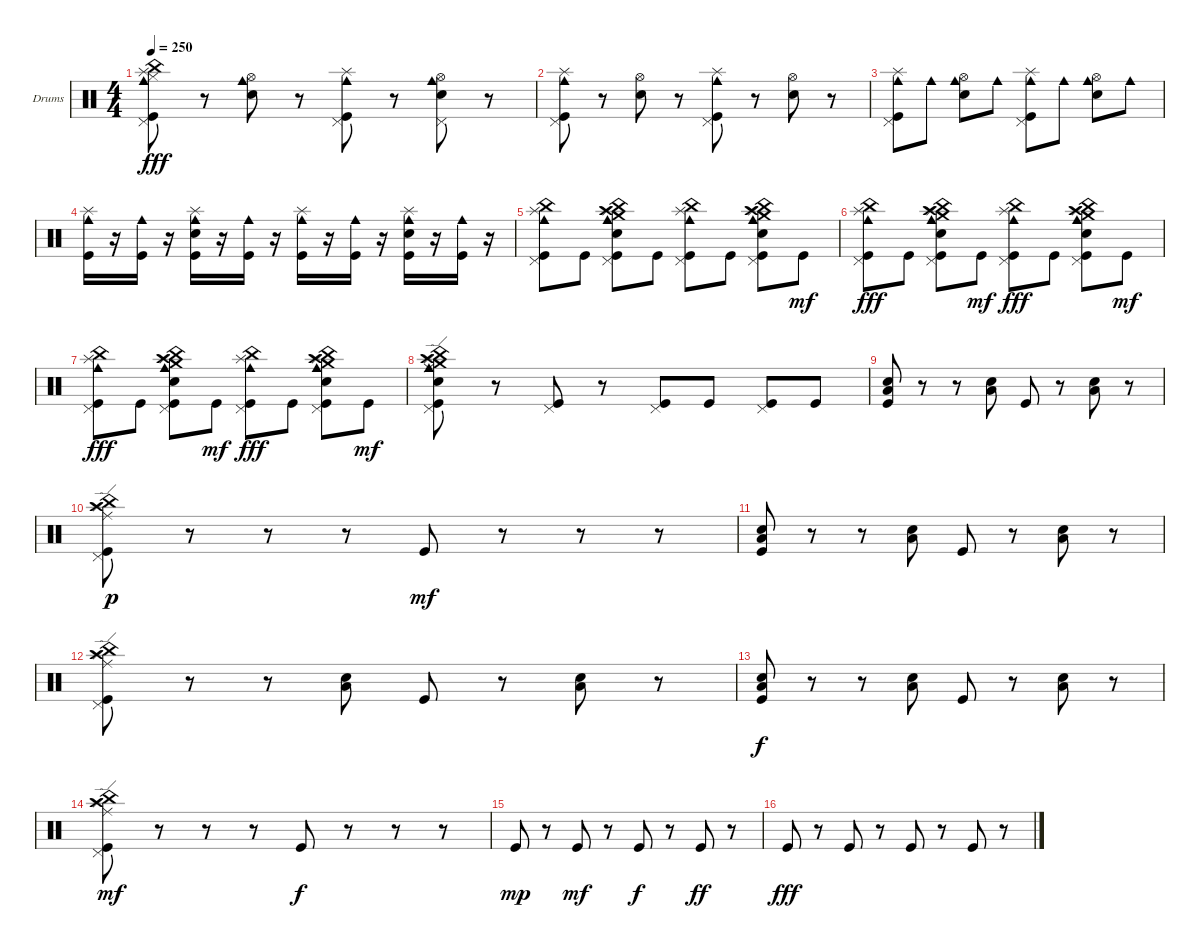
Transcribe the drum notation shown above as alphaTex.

\defaultSystemsLayout 4
\bracketExtendMode groupsimilarinstruments
\firstSystemTrackNameOrientation horizontal
\otherSystemsTrackNameOrientation horizontal
\track ("Драмки" "Drums") {instrument percussion}
\staff {score}
\articulation defaults
\ts (4 4)
\tempo 250
\clef neutral
\ks c
("Cowbell medium (hit)" "Kick (hit)" "Pedal Hi-Hat (hit)" "Hi-Hat (closed)" "Splash (hit)" "China (hit)").8{dy fff} r.8 ("Cowbell medium (hit)" "Snare (hit) 2" "Hi-Hat (open)").8 r.8 ("Cowbell medium (hit)" "Kick (hit)" "Pedal Hi-Hat (hit)" "Splash (hit)").8 r.8 ("Cowbell medium (hit)" "Snare (hit) 2" "Pedal Hi-Hat (hit)" "Hi-Hat (open)").8 r.8 |
("Cowbell medium (hit)" "Kick (hit)" "Pedal Hi-Hat (hit)" "Splash (hit)").8 r.8 ("Snare (hit) 2" "Hi-Hat (open)").8 r.8 ("Cowbell medium (hit)" "Kick (hit)" "Pedal Hi-Hat (hit)" "Splash (hit)").8 r.8 ("Snare (hit) 2" "Hi-Hat (open)").8 r.8 |
("Cowbell medium (hit)" "Pedal Hi-Hat (hit)" "Kick (hit)" "Splash (hit)").8 "Cowbell medium (hit)".8 ("Cowbell medium (hit)" "Snare (hit) 2" "Hi-Hat (open)").8 "Cowbell medium (hit)".8 ("Cowbell medium (hit)" "Pedal Hi-Hat (hit)" "Kick (hit)" "Splash (hit)").8 "Cowbell medium (hit)".8 ("Cowbell medium (hit)" "Snare (hit) 2" "Hi-Hat (open)").8 "Cowbell medium (hit)".8 |
("Kick (hit)" "Splash (hit)" "Cowbell medium (hit)").16 r.16 ("Kick (hit)" "Cowbell medium (hit)").16 r.16 ("Kick (hit)" "Snare (hit) 2" "Splash (hit)" "Cowbell medium (hit)").16 r.16 ("Kick (hit)" "Cowbell medium (hit)").16 r.16 ("Kick (hit)" "Splash (hit)" "Cowbell medium (hit)").16 r.16 ("Kick (hit)" "Cowbell medium (hit)").16 r.16 ("Kick (hit)" "Splash (hit)" "Snare (hit) 2" "Cowbell medium (hit)").16 r.16 ("Kick (hit)" "Cowbell medium (hit)").16 r.16 |
("Splash (hit)" "China (hit)" "Pedal Hi-Hat (hit)" "Kick (hit)" "Cowbell medium (hit)").8 "Kick (hit)".8 ("Snare (hit) 2" "Splash (hit)" "Pedal Hi-Hat (hit)" "China (hit)" "Crash high (hit)" "Crash medium (hit)" "Kick (hit)" "Cowbell medium (hit)").8 "Kick (hit)".8 ("Splash (hit)" "China (hit)" "Kick (hit)" "Pedal Hi-Hat (hit)" "Cowbell medium (hit)").8 "Kick (hit)".8 ("Snare (hit) 2" "Splash (hit)" "Pedal Hi-Hat (hit)" "China (hit)" "Crash high (hit)" "Crash medium (hit)" "Kick (hit)" "Cowbell medium (hit)").8 "Kick (hit)".8{dy mf} |
("Kick (hit)" "Splash (hit)" "China (hit)" "Pedal Hi-Hat (hit)" "Cowbell medium (hit)").8{dy fff} "Kick (hit)".8 ("Snare (hit) 2" "Splash (hit)" "Pedal Hi-Hat (hit)" "China (hit)" "Crash high (hit)" "Crash medium (hit)" "Kick (hit)" "Cowbell medium (hit)").8 "Kick (hit)".8{dy mf} ("Kick (hit)" "Pedal Hi-Hat (hit)" "Splash (hit)" "China (hit)" "Cowbell medium (hit)").8{dy fff} "Kick (hit)".8 ("Pedal Hi-Hat (hit)" "Crash medium (hit)" "Splash (hit)" "Crash high (hit)" "China (hit)" "Snare (hit) 2" "Kick (hit)" "Cowbell medium (hit)").8 "Kick (hit)".8{dy mf} |
("Kick (hit)" "Splash (hit)" "China (hit)" "Pedal Hi-Hat (hit)" "Cowbell medium (hit)").8{dy fff} "Kick (hit)".8 ("Snare (hit) 2" "Splash (hit)" "Pedal Hi-Hat (hit)" "China (hit)" "Crash high (hit)" "Crash medium (hit)" "Kick (hit)" "Cowbell medium (hit)").8 "Kick (hit)".8{dy mf} ("Kick (hit)" "Pedal Hi-Hat (hit)" "Splash (hit)" "China (hit)" "Cowbell medium (hit)").8{dy fff} "Kick (hit)".8 ("Pedal Hi-Hat (hit)" "Crash medium (hit)" "Splash (hit)" "Crash high (hit)" "China (hit)" "Snare (hit) 2" "Kick (hit)" "Cowbell medium (hit)").8 "Kick (hit)".8{dy mf} |
("Kick (hit)" "Snare (hit) 2" "Splash (hit)" "China (hit)" "Crash high (hit)" "Crash medium (hit)" "Ride (edge)" "Pedal Hi-Hat (hit)" "Cowbell medium (hit)").8 r.8 ("Kick (hit)" "Pedal Hi-Hat (hit)").8 r.8 ("Pedal Hi-Hat (hit)" "Kick (hit)").8 "Kick (hit)".8 ("Pedal Hi-Hat (hit)" "Kick (hit)").8 "Kick (hit)".8 |
("Snare (hit) 2" "Low Tom (hit)" "Kick (hit)").8 r.8 r.8 ("Snare (hit) 2" "Low Tom (hit)").8 "Kick (hit)".8 r.8 ("Snare (hit) 2" "Low Tom (hit)").8 r.8 |
("Splash (hit)" "Crash high (hit)" "China (hit)" "Pedal Hi-Hat (hit)" "Ride (edge)" "Kick (hit)").8{dy p} r.8 r.8 r.8 "Kick (hit)".8{dy mf} r.8 r.8 r.8 |
("Snare (hit) 2" "Low Tom (hit)" "Kick (hit)").8 r.8 r.8 ("Snare (hit) 2" "Low Tom (hit)").8 "Kick (hit)".8 r.8 ("Snare (hit) 2" "Low Tom (hit)").8 r.8 |
("Crash high (hit)" "Splash (hit)" "China (hit)" "Pedal Hi-Hat (hit)" "Ride (edge)" "Kick (hit)").8 r.8 r.8 ("Low Tom (hit)" "Snare (hit) 2").8 "Kick (hit)".8 r.8 ("Low Tom (hit)" "Snare (hit) 2").8 r.8 |
("Snare (hit) 2" "Low Tom (hit)" "Kick (hit)").8{dy f} r.8 r.8 ("Snare (hit) 2" "Low Tom (hit)").8 "Kick (hit)".8 r.8 ("Snare (hit) 2" "Low Tom (hit)").8 r.8 |
("Crash high (hit)" "Splash (hit)" "China (hit)" "Pedal Hi-Hat (hit)" "Ride (edge)" "Kick (hit)").8{dy mf} r.8 r.8 r.8 "Kick (hit)".8{dy f} r.8 r.8 r.8 |
"Kick (hit)".8{dy mp} r.8 "Kick (hit)".8{dy mf} r.8 "Kick (hit)".8{dy f} r.8 "Kick (hit)".8{dy ff} r.8 |
"Kick (hit)".8{dy fff} r.8 "Kick (hit)".8 r.8 "Kick (hit)".8 r.8 "Kick (hit)".8 r.8
